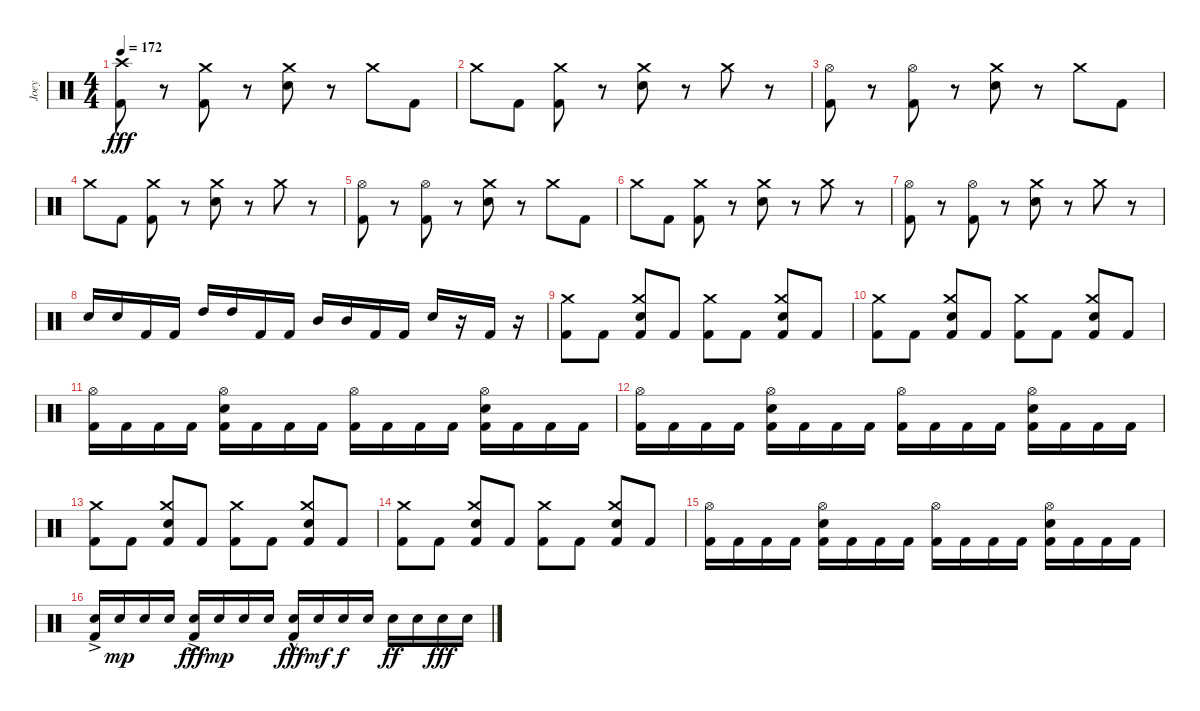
\track ("Joey" "Joey") {instrument percussion}
\staff {score}
\articulation defaults
\ts (4 4)
\tempo 172
\clef neutral
\ks c
("Crash high (hit)" "Kick (hit) 2").8{dy fff} r.8 ("Crash medium (hit)" "Kick (hit) 2").8 r.8 ("Crash medium (hit)" "Snare (hit) 2").8 r.8 "Crash medium (hit)".8 "Kick (hit) 2".8 |
"Crash medium (hit)".8 "Kick (hit) 2".8 ("Crash medium (hit)" "Kick (hit) 2").8 r.8 ("Crash medium (hit)" "Snare (hit) 2").8 r.8 "Crash medium (hit)".8 r.8 |
("Hi-Hat (open)" "Kick (hit) 2").8 r.8 ("Hi-Hat (open)" "Kick (hit) 2").8 r.8 ("Crash medium (hit)" "Snare (hit) 2").8 r.8 "Crash medium (hit)".8 "Kick (hit) 2".8 |
"Crash medium (hit)".8 "Kick (hit) 2".8 ("Crash medium (hit)" "Kick (hit) 2").8 r.8 ("Crash medium (hit)" "Snare (hit) 2").8 r.8 "Crash medium (hit)".8 r.8 |
("Hi-Hat (open)" "Kick (hit) 2").8 r.8 ("Hi-Hat (open)" "Kick (hit) 2").8 r.8 ("Crash medium (hit)" "Snare (hit) 2").8 r.8 "Crash medium (hit)".8 "Kick (hit) 2".8 |
"Crash medium (hit)".8 "Kick (hit) 2".8 ("Crash medium (hit)" "Kick (hit) 2").8 r.8 ("Crash medium (hit)" "Snare (hit) 2").8 r.8 "Crash medium (hit)".8 r.8 |
("Hi-Hat (open)" "Kick (hit) 2").8 r.8 ("Hi-Hat (open)" "Kick (hit) 2").8 r.8 ("Crash medium (hit)" "Snare (hit) 2").8 r.8 "Crash medium (hit)".8 r.8 |
"Snare (hit) 2".16 "Snare (hit) 2".16 "Kick (hit) 2".16 "Kick (hit) 2".16 "High Tom (hit)".16 "High Tom (hit)".16 "Kick (hit) 2".16 "Kick (hit) 2".16 "Mid Tom (hit)".16 "Mid Tom (hit)".16 "Kick (hit) 2".16 "Kick (hit) 2".16 "Snare (hit) 2".16 r.16 "Kick (hit) 2".16 r.16 |
("Crash medium (hit)" "Kick (hit) 2").8 "Kick (hit) 2".8 ("Crash medium (hit)" "Snare (hit) 2" "Kick (hit) 2").8 "Kick (hit) 2".8 ("Crash medium (hit)" "Kick (hit) 2").8 "Kick (hit) 2".8 ("Crash medium (hit)" "Snare (hit) 2" "Kick (hit) 2").8 "Kick (hit) 2".8 |
("Crash medium (hit)" "Kick (hit) 2").8 "Kick (hit) 2".8 ("Crash medium (hit)" "Snare (hit) 2" "Kick (hit) 2").8 "Kick (hit) 2".8 ("Crash medium (hit)" "Kick (hit) 2").8 "Kick (hit) 2".8 ("Crash medium (hit)" "Snare (hit) 2" "Kick (hit) 2").8 "Kick (hit) 2".8 |
("Hi-Hat (open)" "Kick (hit) 2").16 "Kick (hit) 2".16 "Kick (hit) 2".16 "Kick (hit) 2".16 ("Hi-Hat (open)" "Snare (hit) 2" "Kick (hit) 2").16 "Kick (hit) 2".16 "Kick (hit) 2".16 "Kick (hit) 2".16 ("Hi-Hat (open)" "Kick (hit) 2").16 "Kick (hit) 2".16 "Kick (hit) 2".16 "Kick (hit) 2".16 ("Hi-Hat (open)" "Snare (hit) 2" "Kick (hit) 2").16 "Kick (hit) 2".16 "Kick (hit) 2".16 "Kick (hit) 2".16 |
("Hi-Hat (open)" "Kick (hit) 2").16 "Kick (hit) 2".16 "Kick (hit) 2".16 "Kick (hit) 2".16 ("Hi-Hat (open)" "Snare (hit) 2" "Kick (hit) 2").16 "Kick (hit) 2".16 "Kick (hit) 2".16 "Kick (hit) 2".16 ("Hi-Hat (open)" "Kick (hit) 2").16 "Kick (hit) 2".16 "Kick (hit) 2".16 "Kick (hit) 2".16 ("Hi-Hat (open)" "Snare (hit) 2" "Kick (hit) 2").16 "Kick (hit) 2".16 "Kick (hit) 2".16 "Kick (hit) 2".16 |
("Crash medium (hit)" "Kick (hit) 2").8 "Kick (hit) 2".8 ("Crash medium (hit)" "Snare (hit) 2" "Kick (hit) 2").8 "Kick (hit) 2".8 ("Crash medium (hit)" "Kick (hit) 2").8 "Kick (hit) 2".8 ("Crash medium (hit)" "Snare (hit) 2" "Kick (hit) 2").8 "Kick (hit) 2".8 |
("Crash medium (hit)" "Kick (hit) 2").8 "Kick (hit) 2".8 ("Crash medium (hit)" "Snare (hit) 2" "Kick (hit) 2").8 "Kick (hit) 2".8 ("Crash medium (hit)" "Kick (hit) 2").8 "Kick (hit) 2".8 ("Crash medium (hit)" "Snare (hit) 2" "Kick (hit) 2").8 "Kick (hit) 2".8 |
("Hi-Hat (open)" "Kick (hit) 2").16 "Kick (hit) 2".16 "Kick (hit) 2".16 "Kick (hit) 2".16 ("Hi-Hat (open)" "Snare (hit) 2" "Kick (hit) 2").16 "Kick (hit) 2".16 "Kick (hit) 2".16 "Kick (hit) 2".16 ("Hi-Hat (open)" "Kick (hit) 2").16 "Kick (hit) 2".16 "Kick (hit) 2".16 "Kick (hit) 2".16 ("Hi-Hat (open)" "Snare (hit) 2" "Kick (hit) 2").16 "Kick (hit) 2".16 "Kick (hit) 2".16 "Kick (hit) 2".16 |
("Snare (hit) 2"{ac} "Kick (hit) 2").16 "Snare (hit) 2".16{dy mp} "Snare (hit) 2".16 "Snare (hit) 2".16 ("Snare (hit) 2"{ac} "Kick (hit) 2").16{dy fff} "Snare (hit) 2".16{dy mp} "Snare (hit) 2".16 "Snare (hit) 2".16 ("Snare (hit) 2"{hac} "Kick (hit) 2").16{dy fff} "Snare (hit) 2".16{dy mf} "Snare (hit) 2".16{dy f} "Snare (hit) 2".16 "Snare (hit) 2".16{dy ff} "Snare (hit) 2".16 "Snare (hit) 2".16{dy fff} "Snare (hit) 2".16
